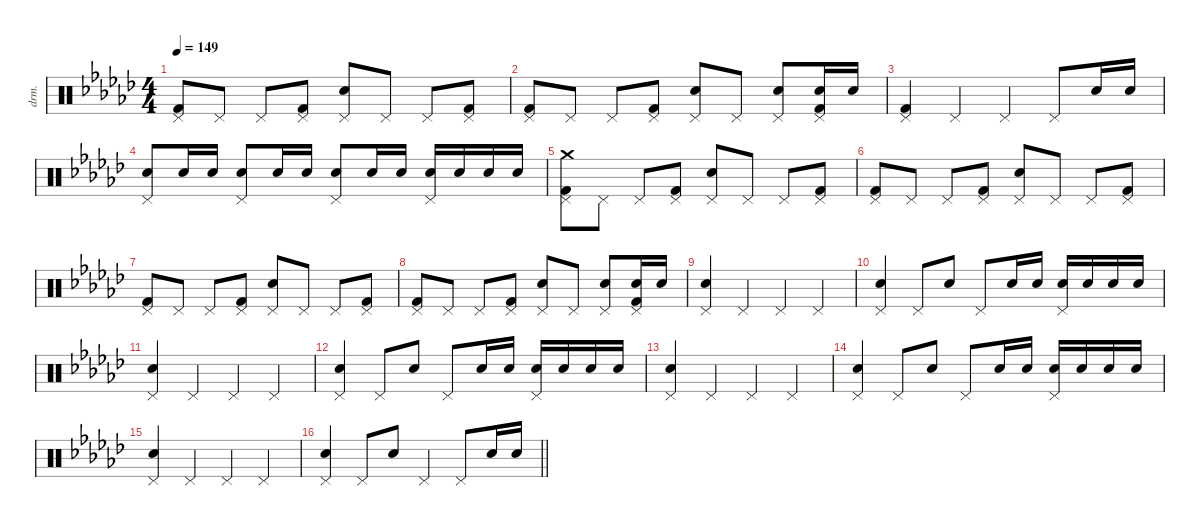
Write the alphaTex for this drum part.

\defaultSystemsLayout 4
\hideDynamics
\bracketExtendMode nobrackets
\otherSystemsTrackNameOrientation horizontal
\track ("Drums" "drm.") {defaultSystemsLayout 4 instrument percussion}
\staff {score}
\articulation defaults
\ts (4 4)
\tempo 149
\clef neutral
\ks gb
("Pedal Hi-Hat (hit)"{acc forcenatural} "Kick (hit) 2"{acc forcenatural}).8{dy f beam Up} "Pedal Hi-Hat (hit)"{acc forcenatural}.8{dy mp beam Up} "Pedal Hi-Hat (hit)"{acc forcenatural}.8{dy f beam Up} ("Pedal Hi-Hat (hit)"{acc forcenatural} "Kick (hit) 2"{acc forcenatural}).8{dy mp beam Up} ("Pedal Hi-Hat (hit)"{acc forcenatural} "Snare (hit) 2"{acc forcenatural}).8{dy f beam Up} "Pedal Hi-Hat (hit)"{acc forcenatural}.8{dy mp beam Up} "Pedal Hi-Hat (hit)"{acc forcenatural}.8{dy f beam Up} ("Pedal Hi-Hat (hit)"{acc forcenatural} "Kick (hit) 2"{acc forcenatural}).8{dy mp beam Up} |
("Pedal Hi-Hat (hit)"{acc forcenatural} "Kick (hit) 2"{acc forcenatural}).8{dy f beam Up} "Pedal Hi-Hat (hit)"{acc forcenatural}.8{dy mp beam Up} "Pedal Hi-Hat (hit)"{acc forcenatural}.8{dy f beam Up} ("Pedal Hi-Hat (hit)"{acc forcenatural} "Kick (hit) 2"{acc forcenatural}).8{dy mp beam Up} ("Pedal Hi-Hat (hit)"{acc forcenatural} "Snare (hit) 2"{acc forcenatural}).8{dy f beam Up} "Pedal Hi-Hat (hit)"{acc forcenatural}.8{dy mp beam Up} ("Pedal Hi-Hat (hit)"{acc forcenatural} "Snare (hit) 2"{acc forcenatural}).8{dy f beam Up} ("Pedal Hi-Hat (hit)"{acc forcenatural} "Snare (hit) 2"{acc forcenatural} "Kick (hit) 2"{acc forcenatural}).16{dy mp beam Up} "Snare (hit) 2"{acc forcenatural}.16{dy f beam Up} |
("Pedal Hi-Hat (hit)"{acc forcenatural} "Kick (hit) 2"{acc forcenatural}).4{beam Up} "Pedal Hi-Hat (hit)"{acc forcenatural}.4{beam Up} "Pedal Hi-Hat (hit)"{acc forcenatural}.4{beam Up} "Pedal Hi-Hat (hit)"{acc forcenatural}.8{beam Up} "Snare (hit) 2"{acc forcenatural}.16{dy mf beam Up} "Snare (hit) 2"{acc forcenatural}.16{beam Up} |
("Pedal Hi-Hat (hit)"{acc forcenatural} "Snare (hit) 2"{acc forcenatural}).8{dy f beam Up} "Snare (hit) 2"{acc forcenatural}.16{dy mf beam Up} "Snare (hit) 2"{acc forcenatural}.16{beam Up} ("Pedal Hi-Hat (hit)"{acc forcenatural} "Snare (hit) 2"{acc forcenatural}).8{dy f beam Up} "Snare (hit) 2"{acc forcenatural}.16{dy mf beam Up} "Snare (hit) 2"{acc forcenatural}.16{beam Up} ("Pedal Hi-Hat (hit)"{acc forcenatural} "Snare (hit) 2"{acc forcenatural}).8{dy f beam Up} "Snare (hit) 2"{acc forcenatural}.16{dy mf beam Up} "Snare (hit) 2"{acc forcenatural}.16{beam Up} ("Pedal Hi-Hat (hit)"{acc forcenatural} "Snare (hit) 2"{acc forcenatural}).16{dy f beam Up} "Snare (hit) 2"{acc forcenatural}.16{dy mf beam Up} "Snare (hit) 2"{acc forcenatural}.16{beam Up} "Snare (hit) 2"{acc forcenatural}.16{beam Up} |
("Pedal Hi-Hat (hit)"{acc forcenatural} "Kick (hit) 2"{acc forcenatural} "Crash medium (hit)"{acc forcenatural}).8{dy f beam Down} "Pedal Hi-Hat (hit)"{acc forcenatural}.8{dy mp beam Down} "Pedal Hi-Hat (hit)"{acc forcenatural}.8{dy f beam Up} ("Pedal Hi-Hat (hit)"{acc forcenatural} "Kick (hit) 2"{acc forcenatural}).8{dy mp beam Up} ("Pedal Hi-Hat (hit)"{acc forcenatural} "Snare (hit) 2"{acc forcenatural}).8{dy f beam Up} "Pedal Hi-Hat (hit)"{acc forcenatural}.8{dy mp beam Up} "Pedal Hi-Hat (hit)"{acc forcenatural}.8{dy f beam Up} ("Pedal Hi-Hat (hit)"{acc forcenatural} "Kick (hit) 2"{acc forcenatural}).8{dy mp beam Up} |
("Pedal Hi-Hat (hit)"{acc forcenatural} "Kick (hit) 2"{acc forcenatural}).8{dy f beam Up} "Pedal Hi-Hat (hit)"{acc forcenatural}.8{dy mp beam Up} "Pedal Hi-Hat (hit)"{acc forcenatural}.8{dy f beam Up} ("Pedal Hi-Hat (hit)"{acc forcenatural} "Kick (hit) 2"{acc forcenatural}).8{dy mp beam Up} ("Pedal Hi-Hat (hit)"{acc forcenatural} "Snare (hit) 2"{acc forcenatural}).8{dy f beam Up} "Pedal Hi-Hat (hit)"{acc forcenatural}.8{dy mp beam Up} "Pedal Hi-Hat (hit)"{acc forcenatural}.8{dy f beam Up} ("Pedal Hi-Hat (hit)"{acc forcenatural} "Kick (hit) 2"{acc forcenatural}).8{dy mp beam Up} |
("Pedal Hi-Hat (hit)"{acc forcenatural} "Kick (hit) 2"{acc forcenatural}).8{dy f beam Up} "Pedal Hi-Hat (hit)"{acc forcenatural}.8{dy mp beam Up} "Pedal Hi-Hat (hit)"{acc forcenatural}.8{dy f beam Up} ("Pedal Hi-Hat (hit)"{acc forcenatural} "Kick (hit) 2"{acc forcenatural}).8{dy mp beam Up} ("Pedal Hi-Hat (hit)"{acc forcenatural} "Snare (hit) 2"{acc forcenatural}).8{dy f beam Up} "Pedal Hi-Hat (hit)"{acc forcenatural}.8{dy mp beam Up} "Pedal Hi-Hat (hit)"{acc forcenatural}.8{dy f beam Up} ("Pedal Hi-Hat (hit)"{acc forcenatural} "Kick (hit) 2"{acc forcenatural}).8{dy mp beam Up} |
("Pedal Hi-Hat (hit)"{acc forcenatural} "Kick (hit) 2"{acc forcenatural}).8{dy f beam Up} "Pedal Hi-Hat (hit)"{acc forcenatural}.8{dy mp beam Up} "Pedal Hi-Hat (hit)"{acc forcenatural}.8{dy f beam Up} ("Pedal Hi-Hat (hit)"{acc forcenatural} "Kick (hit) 2"{acc forcenatural}).8{dy mp beam Up} ("Pedal Hi-Hat (hit)"{acc forcenatural} "Snare (hit) 2"{acc forcenatural}).8{dy f beam Up} "Pedal Hi-Hat (hit)"{acc forcenatural}.8{dy mp beam Up} ("Pedal Hi-Hat (hit)"{acc forcenatural} "Snare (hit) 2"{acc forcenatural}).8{dy f beam Up} ("Pedal Hi-Hat (hit)"{acc forcenatural} "Snare (hit) 2"{acc forcenatural} "Kick (hit) 2"{acc forcenatural}).16{dy mp beam Up} "Snare (hit) 2"{acc forcenatural}.16{dy f beam Up} |
("Pedal Hi-Hat (hit)"{acc forcenatural} "Snare (hit) 2"{acc forcenatural}).4{beam Up} "Pedal Hi-Hat (hit)"{acc forcenatural}.4{beam Up} "Pedal Hi-Hat (hit)"{acc forcenatural}.4{beam Up} "Pedal Hi-Hat (hit)"{acc forcenatural}.4{beam Up} |
("Pedal Hi-Hat (hit)"{acc forcenatural} "Snare (hit) 2"{acc forcenatural}).4{beam Up} "Pedal Hi-Hat (hit)"{acc forcenatural}.8{beam Up} "Snare (hit) 2"{acc forcenatural}.8{beam Up} "Pedal Hi-Hat (hit)"{acc forcenatural}.8{beam Up} "Snare (hit) 2"{acc forcenatural}.16{dy p beam Up} "Snare (hit) 2"{acc forcenatural}.16{dy mp beam Up} ("Pedal Hi-Hat (hit)"{acc forcenatural} "Snare (hit) 2"{acc forcenatural}).16{dy f beam Up} "Snare (hit) 2"{acc forcenatural}.16{dy mf beam Up} "Snare (hit) 2"{acc forcenatural}.16{dy f beam Up} "Snare (hit) 2"{acc forcenatural}.16{dy ff beam Up} |
("Pedal Hi-Hat (hit)"{acc forcenatural} "Snare (hit) 2"{acc forcenatural}).4{dy f beam Up} "Pedal Hi-Hat (hit)"{acc forcenatural}.4{beam Up} "Pedal Hi-Hat (hit)"{acc forcenatural}.4{beam Up} "Pedal Hi-Hat (hit)"{acc forcenatural}.4{beam Up} |
("Pedal Hi-Hat (hit)"{acc forcenatural} "Snare (hit) 2"{acc forcenatural}).4{beam Up} "Pedal Hi-Hat (hit)"{acc forcenatural}.8{beam Up} "Snare (hit) 2"{acc forcenatural}.8{beam Up} "Pedal Hi-Hat (hit)"{acc forcenatural}.8{beam Up} "Snare (hit) 2"{acc forcenatural}.16{dy p beam Up} "Snare (hit) 2"{acc forcenatural}.16{dy mp beam Up} ("Pedal Hi-Hat (hit)"{acc forcenatural} "Snare (hit) 2"{acc forcenatural}).16{dy f beam Up} "Snare (hit) 2"{acc forcenatural}.16{dy mf beam Up} "Snare (hit) 2"{acc forcenatural}.16{dy f beam Up} "Snare (hit) 2"{acc forcenatural}.16{dy ff beam Up} |
("Pedal Hi-Hat (hit)"{acc forcenatural} "Snare (hit) 2"{acc forcenatural}).4{dy f beam Up} "Pedal Hi-Hat (hit)"{acc forcenatural}.4{beam Up} "Pedal Hi-Hat (hit)"{acc forcenatural}.4{beam Up} "Pedal Hi-Hat (hit)"{acc forcenatural}.4{beam Up} |
("Pedal Hi-Hat (hit)"{acc forcenatural} "Snare (hit) 2"{acc forcenatural}).4{beam Up} "Pedal Hi-Hat (hit)"{acc forcenatural}.8{beam Up} "Snare (hit) 2"{acc forcenatural}.8{beam Up} "Pedal Hi-Hat (hit)"{acc forcenatural}.8{beam Up} "Snare (hit) 2"{acc forcenatural}.16{dy p beam Up} "Snare (hit) 2"{acc forcenatural}.16{dy mp beam Up} ("Pedal Hi-Hat (hit)"{acc forcenatural} "Snare (hit) 2"{acc forcenatural}).16{dy f beam Up} "Snare (hit) 2"{acc forcenatural}.16{dy mf beam Up} "Snare (hit) 2"{acc forcenatural}.16{dy f beam Up} "Snare (hit) 2"{acc forcenatural}.16{dy ff beam Up} |
("Pedal Hi-Hat (hit)"{acc forcenatural} "Snare (hit) 2"{acc forcenatural}).4{dy f beam Up} "Pedal Hi-Hat (hit)"{acc forcenatural}.4{beam Up} "Pedal Hi-Hat (hit)"{acc forcenatural}.4{beam Up} "Pedal Hi-Hat (hit)"{acc forcenatural}.4{beam Up} |
\barLineRight lightlight
("Pedal Hi-Hat (hit)"{acc forcenatural} "Snare (hit) 2"{acc forcenatural}).4{beam Up} "Pedal Hi-Hat (hit)"{acc forcenatural}.8{beam Up} "Snare (hit) 2"{acc forcenatural}.8{beam Up} "Pedal Hi-Hat (hit)"{acc forcenatural}.4{beam Up} "Pedal Hi-Hat (hit)"{acc forcenatural}.8{beam Up} "Snare (hit) 2"{acc forcenatural}.16{beam Up} "Snare (hit) 2"{acc forcenatural}.16{dy ff beam Up}
